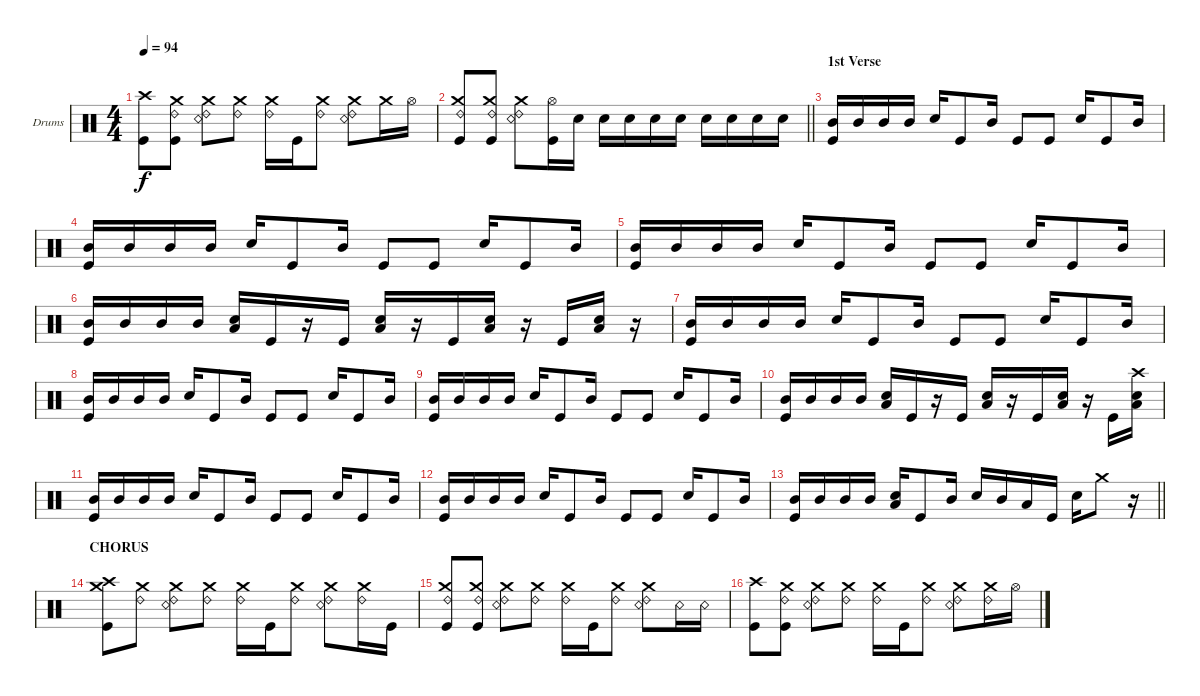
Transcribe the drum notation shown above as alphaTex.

\bracketExtendMode groupsimilarinstruments
\firstSystemTrackNameOrientation horizontal
\otherSystemsTrackNameOrientation horizontal
\track ("Drumkit" "Drums") {instrument percussion}
\staff {score}
\articulation defaults
\ts (4 4)
\tempo 94
\clef neutral
\ks c
("Crash high (hit)" "Kick (hit)").8{dy f} ("Crash medium (hit)" "Kick (hit)" "Ride (bell) 2").8 ("Crash medium (hit)" "Snare (rim shot)" "Ride (bell) 2").8 ("Crash medium (hit)" "Ride (bell) 2").8 ("Crash medium (hit)" "Ride (bell) 2").16 "Kick (hit)".16 ("Crash medium (hit)" "Ride (bell) 2").8 ("Crash medium (hit)" "Snare (rim shot)" "Ride (bell) 2").8 "Crash medium (hit)".16 "Hi-Hat (open)".16 |
\barLineRight lightlight
("Crash medium (hit)" "Kick (hit)" "Ride (bell) 2").8 ("Crash medium (hit)" "Kick (hit)" "Ride (bell) 2").8 ("Crash medium (hit)" "Snare (rim shot)" "Ride (bell) 2").8 ("Hi-Hat (open)" "Kick (hit)").16 "Snare (hit) 2".16 "Snare (hit) 2".16 "Snare (hit) 2".16 "Snare (hit) 2".16 "Snare (hit) 2".16 "Snare (hit) 2".16 "Snare (hit) 2".16 "Snare (hit) 2".16 "Snare (hit) 2".16 |
\section ("" "1st Verse")
("Kick (hit)" "Mid Tom (hit)").16 "Mid Tom (hit)".16 "Mid Tom (hit)".16 "Mid Tom (hit)".16 "Snare (hit) 2".16 "Kick (hit)".8 "Mid Tom (hit)".16 "Kick (hit)".8 "Kick (hit)".8 "Snare (hit) 2".16 "Kick (hit)".8 "Mid Tom (hit)".16 |
("Kick (hit)" "Mid Tom (hit)").16 "Mid Tom (hit)".16 "Mid Tom (hit)".16 "Mid Tom (hit)".16 "Snare (hit) 2".16 "Kick (hit)".8 "Mid Tom (hit)".16 "Kick (hit)".8 "Kick (hit)".8 "Snare (hit) 2".16 "Kick (hit)".8 "Mid Tom (hit)".16 |
("Kick (hit)" "Mid Tom (hit)").16 "Mid Tom (hit)".16 "Mid Tom (hit)".16 "Mid Tom (hit)".16 "Snare (hit) 2".16 "Kick (hit)".8 "Mid Tom (hit)".16 "Kick (hit)".8 "Kick (hit)".8 "Snare (hit) 2".16 "Kick (hit)".8 "Mid Tom (hit)".16 |
("Kick (hit)" "Mid Tom (hit)").16 "Mid Tom (hit)".16 "Mid Tom (hit)".16 "Mid Tom (hit)".16 ("Snare (hit) 2" "Low Tom (hit)").16 "Kick (hit)".16 r.16 "Kick (hit)".16 ("Snare (hit) 2" "Low Tom (hit)").16 r.16 "Kick (hit)".16 ("Snare (hit) 2" "Low Tom (hit)").16 r.16 "Kick (hit)".16 ("Snare (hit) 2" "Low Tom (hit)").16 r.16 |
("Kick (hit)" "Mid Tom (hit)").16 "Mid Tom (hit)".16 "Mid Tom (hit)".16 "Mid Tom (hit)".16 "Snare (hit) 2".16 "Kick (hit)".8 "Mid Tom (hit)".16 "Kick (hit)".8 "Kick (hit)".8 "Snare (hit) 2".16 "Kick (hit)".8 "Mid Tom (hit)".16 |
("Kick (hit)" "Mid Tom (hit)").16 "Mid Tom (hit)".16 "Mid Tom (hit)".16 "Mid Tom (hit)".16 "Snare (hit) 2".16 "Kick (hit)".8 "Mid Tom (hit)".16 "Kick (hit)".8 "Kick (hit)".8 "Snare (hit) 2".16 "Kick (hit)".8 "Mid Tom (hit)".16 |
("Kick (hit)" "Mid Tom (hit)").16 "Mid Tom (hit)".16 "Mid Tom (hit)".16 "Mid Tom (hit)".16 "Snare (hit) 2".16 "Kick (hit)".8 "Mid Tom (hit)".16 "Kick (hit)".8 "Kick (hit)".8 "Snare (hit) 2".16 "Kick (hit)".8 "Mid Tom (hit)".16 |
("Kick (hit)" "Mid Tom (hit)").16 "Mid Tom (hit)".16 "Mid Tom (hit)".16 "Mid Tom (hit)".16 ("Snare (hit) 2" "Low Tom (hit)").16 "Kick (hit)".16 r.16 "Kick (hit)".16 ("Snare (hit) 2" "Low Tom (hit)").16 r.16 "Kick (hit)".16 ("Snare (hit) 2" "Low Tom (hit)").16 r.16 "Kick (hit)".16 ("Snare (hit) 2" "Low Tom (hit)" "Crash high (hit)").16 |
("Kick (hit)" "Mid Tom (hit)").16 "Mid Tom (hit)".16 "Mid Tom (hit)".16 "Mid Tom (hit)".16 "Snare (hit) 2".16 "Kick (hit)".8 "Mid Tom (hit)".16 "Kick (hit)".8 "Kick (hit)".8 "Snare (hit) 2".16 "Kick (hit)".8 "Mid Tom (hit)".16 |
("Kick (hit)" "Mid Tom (hit)").16 "Mid Tom (hit)".16 "Mid Tom (hit)".16 "Mid Tom (hit)".16 "Snare (hit) 2".16 "Kick (hit)".8 "Mid Tom (hit)".16 "Kick (hit)".8 "Kick (hit)".8 "Snare (hit) 2".16 "Kick (hit)".8 "Mid Tom (hit)".16 |
\barLineRight lightlight
("Kick (hit)" "Mid Tom (hit)").16 "Mid Tom (hit)".16 "Mid Tom (hit)".16 "Mid Tom (hit)".16 ("Snare (hit) 2" "Low Tom (hit)").16 "Kick (hit)".8 "Mid Tom (hit)".16 "Snare (hit) 2".16 "Mid Tom (hit)".16 "Low Tom (hit)".16 "Kick (hit)".16 "Snare (hit) 2".16 "Crash medium (hit)".8 r.16 |
\section ("" "CHORUS")
("Crash high (hit)" "Crash medium (hit)" "Kick (hit)").8 ("Crash medium (hit)" "Ride (bell) 2").8 ("Crash medium (hit)" "Snare (rim shot)" "Ride (bell) 2").8 ("Crash medium (hit)" "Ride (bell) 2").8 ("Crash medium (hit)" "Ride (bell) 2").16 "Kick (hit)".16 ("Crash medium (hit)" "Ride (bell) 2").8 ("Crash medium (hit)" "Snare (rim shot)" "Ride (bell) 2").8 ("Crash medium (hit)" "Ride (bell) 2").16 "Kick (hit)".16 |
("Crash medium (hit)" "Kick (hit)" "Ride (bell) 2").8 ("Crash medium (hit)" "Kick (hit)" "Ride (bell) 2").8 ("Crash medium (hit)" "Snare (rim shot)" "Ride (bell) 2").8 ("Crash medium (hit)" "Ride (bell) 2").8 ("Crash medium (hit)" "Ride (bell) 2").16 "Kick (hit)".16 ("Crash medium (hit)" "Ride (bell) 2").8 ("Crash medium (hit)" "Snare (rim shot)" "Ride (bell) 2").8 "Snare (rim shot)".16 "Snare (rim shot)".16 |
("Crash high (hit)" "Kick (hit)").8 ("Crash medium (hit)" "Kick (hit)" "Ride (bell) 2").8 ("Crash medium (hit)" "Ride (bell) 2" "Snare (rim shot)").8 ("Crash medium (hit)" "Ride (bell) 2").8 ("Crash medium (hit)" "Ride (bell) 2").16 "Kick (hit)".16 ("Crash medium (hit)" "Ride (bell) 2").8 ("Crash medium (hit)" "Snare (rim shot)" "Ride (bell) 2").8 ("Crash medium (hit)" "Ride (bell) 2").16 "Hi-Hat (open)".16
